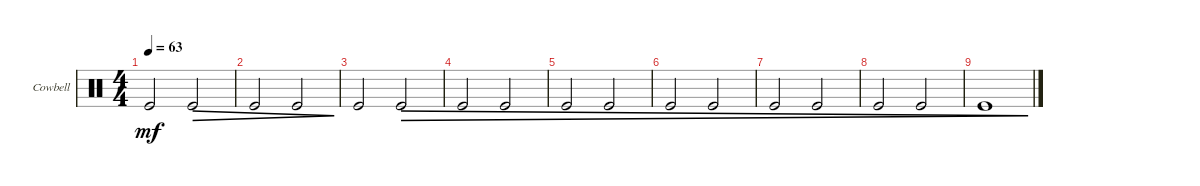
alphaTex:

\defaultSystemsLayout 4
\bracketExtendMode groupsimilarinstruments
\firstSystemTrackNameOrientation horizontal
\otherSystemsTrackNameOrientation horizontal
\track ("Cowbell" "Cowbell") {instrument percussion}
\staff {score}
\articulation defaults
\ts (4 4)
\tempo 63
\clef neutral
\ks c "Kick (hit)".2{dy mf} "Kick (hit)".2{dec}
|
"Kick (hit)".2{dec} "Kick (hit)".2{dec} |
"Kick (hit)".2 "Kick (hit)".2{dec} |
"Kick (hit)".2{dec} "Kick (hit)".2{dec} |
"Kick (hit)".2{dec} "Kick (hit)".2{dec} |
"Kick (hit)".2{dec} "Kick (hit)".2{dec} |
"Kick (hit)".2{dec} "Kick (hit)".2{dec} |
"Kick (hit)".2{dec} "Kick (hit)".2{dec} |
"Kick (hit)".1{dec}
